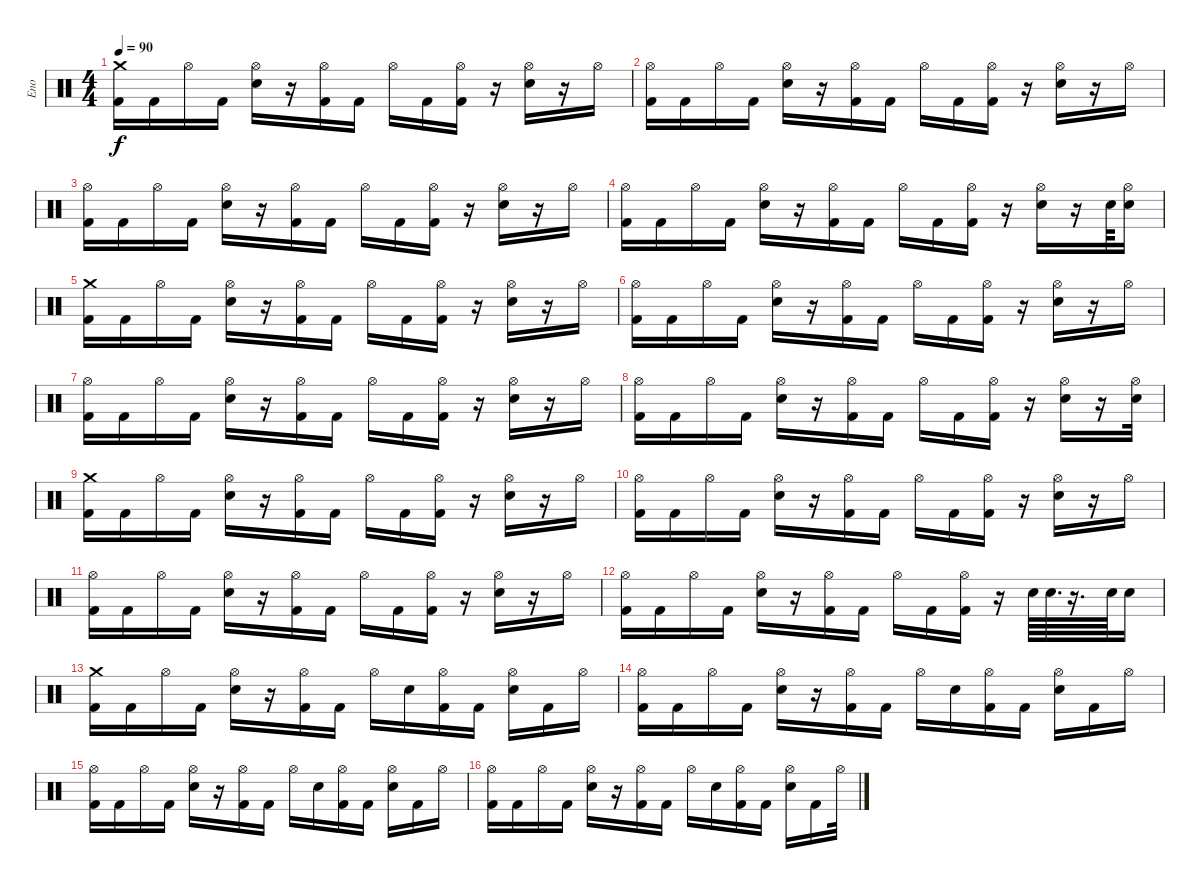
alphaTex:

\track ("Eno" "Eno") {instrument percussion}
\staff {score}
\articulation defaults
\ts (4 4)
\tempo 90
\clef neutral
\ks c
("Crash medium (hit)" "Kick (hit) 2").16{dy f} "Kick (hit) 2".16 "Hi-Hat (open)".16 "Kick (hit) 2".16 ("Hi-Hat (open)" "Snare (hit) 2").16 r.16 ("Hi-Hat (open)" "Kick (hit) 2").16 "Kick (hit) 2".16 "Hi-Hat (open)".16 "Kick (hit) 2".16 ("Hi-Hat (open)" "Kick (hit) 2").16 r.16 ("Hi-Hat (open)" "Snare (hit) 2").16 r.16 "Hi-Hat (open)".16 |
("Hi-Hat (open)" "Kick (hit) 2").16 "Kick (hit) 2".16 "Hi-Hat (open)".16 "Kick (hit) 2".16 ("Hi-Hat (open)" "Snare (hit) 2").16 r.16 ("Hi-Hat (open)" "Kick (hit) 2").16 "Kick (hit) 2".16 "Hi-Hat (open)".16 "Kick (hit) 2".16 ("Hi-Hat (open)" "Kick (hit) 2").16 r.16 ("Hi-Hat (open)" "Snare (hit) 2").16 r.16 "Hi-Hat (open)".16 |
("Hi-Hat (open)" "Kick (hit) 2").16 "Kick (hit) 2".16 "Hi-Hat (open)".16 "Kick (hit) 2".16 ("Hi-Hat (open)" "Snare (hit) 2").16 r.16 ("Hi-Hat (open)" "Kick (hit) 2").16 "Kick (hit) 2".16 "Hi-Hat (open)".16 "Kick (hit) 2".16 ("Hi-Hat (open)" "Kick (hit) 2").16 r.16 ("Hi-Hat (open)" "Snare (hit) 2").16 r.16 "Hi-Hat (open)".16 |
("Hi-Hat (open)" "Kick (hit) 2").16 "Kick (hit) 2".16 "Hi-Hat (open)".16 "Kick (hit) 2".16 ("Hi-Hat (open)" "Snare (hit) 2").16 r.16 ("Hi-Hat (open)" "Kick (hit) 2").16 "Kick (hit) 2".16 "Hi-Hat (open)".16 "Kick (hit) 2".16 ("Hi-Hat (open)" "Kick (hit) 2").16 r.16 ("Hi-Hat (open)" "Snare (hit) 2").16 r.16 "Snare (hit) 2".64 ("Hi-Hat (open)" "Snare (hit) 2").16 |
("Crash medium (hit)" "Kick (hit) 2").16 "Kick (hit) 2".16 "Hi-Hat (open)".16 "Kick (hit) 2".16 ("Hi-Hat (open)" "Snare (hit) 2").16 r.16 ("Hi-Hat (open)" "Kick (hit) 2").16 "Kick (hit) 2".16 "Hi-Hat (open)".16 "Kick (hit) 2".16 ("Hi-Hat (open)" "Kick (hit) 2").16 r.16 ("Hi-Hat (open)" "Snare (hit) 2").16 r.16 "Hi-Hat (open)".16 |
("Hi-Hat (open)" "Kick (hit) 2").16 "Kick (hit) 2".16 "Hi-Hat (open)".16 "Kick (hit) 2".16 ("Hi-Hat (open)" "Snare (hit) 2").16 r.16 ("Hi-Hat (open)" "Kick (hit) 2").16 "Kick (hit) 2".16 "Hi-Hat (open)".16 "Kick (hit) 2".16 ("Hi-Hat (open)" "Kick (hit) 2").16 r.16 ("Hi-Hat (open)" "Snare (hit) 2").16 r.16 "Hi-Hat (open)".16 |
("Hi-Hat (open)" "Kick (hit) 2").16 "Kick (hit) 2".16 "Hi-Hat (open)".16 "Kick (hit) 2".16 ("Hi-Hat (open)" "Snare (hit) 2").16 r.16 ("Hi-Hat (open)" "Kick (hit) 2").16 "Kick (hit) 2".16 "Hi-Hat (open)".16 "Kick (hit) 2".16 ("Hi-Hat (open)" "Kick (hit) 2").16 r.16 ("Hi-Hat (open)" "Snare (hit) 2").16 r.16 "Hi-Hat (open)".16 |
("Hi-Hat (open)" "Kick (hit) 2").16 "Kick (hit) 2".16 "Hi-Hat (open)".16 "Kick (hit) 2".16 ("Hi-Hat (open)" "Snare (hit) 2").16 r.16 ("Hi-Hat (open)" "Kick (hit) 2").16 "Kick (hit) 2".16 "Hi-Hat (open)".16 "Kick (hit) 2".16 ("Hi-Hat (open)" "Kick (hit) 2").16 r.16 ("Hi-Hat (open)" "Snare (hit) 2").16 r.16 ("Hi-Hat (open)" "Snare (hit) 2").32 |
("Crash medium (hit)" "Kick (hit) 2").16 "Kick (hit) 2".16 "Hi-Hat (open)".16 "Kick (hit) 2".16 ("Hi-Hat (open)" "Snare (hit) 2").16 r.16 ("Hi-Hat (open)" "Kick (hit) 2").16 "Kick (hit) 2".16 "Hi-Hat (open)".16 "Kick (hit) 2".16 ("Hi-Hat (open)" "Kick (hit) 2").16 r.16 ("Hi-Hat (open)" "Snare (hit) 2").16 r.16 "Hi-Hat (open)".16 |
("Hi-Hat (open)" "Kick (hit) 2").16 "Kick (hit) 2".16 "Hi-Hat (open)".16 "Kick (hit) 2".16 ("Hi-Hat (open)" "Snare (hit) 2").16 r.16 ("Hi-Hat (open)" "Kick (hit) 2").16 "Kick (hit) 2".16 "Hi-Hat (open)".16 "Kick (hit) 2".16 ("Hi-Hat (open)" "Kick (hit) 2").16 r.16 ("Hi-Hat (open)" "Snare (hit) 2").16 r.16 "Hi-Hat (open)".16 |
("Hi-Hat (open)" "Kick (hit) 2").16 "Kick (hit) 2".16 "Hi-Hat (open)".16 "Kick (hit) 2".16 ("Hi-Hat (open)" "Snare (hit) 2").16 r.16 ("Hi-Hat (open)" "Kick (hit) 2").16 "Kick (hit) 2".16 "Hi-Hat (open)".16 "Kick (hit) 2".16 ("Hi-Hat (open)" "Kick (hit) 2").16 r.16 ("Hi-Hat (open)" "Snare (hit) 2").16 r.16 "Hi-Hat (open)".16 |
("Hi-Hat (open)" "Kick (hit) 2").16 "Kick (hit) 2".16 "Hi-Hat (open)".16 "Kick (hit) 2".16 ("Hi-Hat (open)" "Snare (hit) 2").16 r.16 ("Hi-Hat (open)" "Kick (hit) 2").16 "Kick (hit) 2".16 "Hi-Hat (open)".16 "Kick (hit) 2".16 ("Hi-Hat (open)" "Kick (hit) 2").16 r.16 "Snare (hit) 2".64 "Snare (hit) 2".64{d} r.16{d} "Snare (hit) 2".64 "Snare (hit) 2".16 |
("Crash medium (hit)" "Kick (hit) 2").16 "Kick (hit) 2".16 "Hi-Hat (open)".16 "Kick (hit) 2".16 ("Hi-Hat (open)" "Snare (hit) 2").16 r.16 ("Hi-Hat (open)" "Kick (hit) 2").16 "Kick (hit) 2".16 "Hi-Hat (open)".16 "Snare (hit) 2".16 ("Hi-Hat (open)" "Kick (hit) 2").16 "Kick (hit) 2".16 ("Hi-Hat (open)" "Snare (hit) 2").16 "Kick (hit) 2".16 "Hi-Hat (open)".16 |
("Hi-Hat (open)" "Kick (hit) 2").16 "Kick (hit) 2".16 "Hi-Hat (open)".16 "Kick (hit) 2".16 ("Hi-Hat (open)" "Snare (hit) 2").16 r.16 ("Hi-Hat (open)" "Kick (hit) 2").16 "Kick (hit) 2".16 "Hi-Hat (open)".16 "Snare (hit) 2".16 ("Hi-Hat (open)" "Kick (hit) 2").16 "Kick (hit) 2".16 ("Hi-Hat (open)" "Snare (hit) 2").16 "Kick (hit) 2".16 "Hi-Hat (open)".16 |
("Hi-Hat (open)" "Kick (hit) 2").16 "Kick (hit) 2".16 "Hi-Hat (open)".16 "Kick (hit) 2".16 ("Hi-Hat (open)" "Snare (hit) 2").16 r.16 ("Hi-Hat (open)" "Kick (hit) 2").16 "Kick (hit) 2".16 "Hi-Hat (open)".16 "Snare (hit) 2".16 ("Hi-Hat (open)" "Kick (hit) 2").16 "Kick (hit) 2".16 ("Hi-Hat (open)" "Snare (hit) 2").16 "Kick (hit) 2".16 "Hi-Hat (open)".16 |
("Hi-Hat (open)" "Kick (hit) 2").16 "Kick (hit) 2".16 "Hi-Hat (open)".16 "Kick (hit) 2".16 ("Hi-Hat (open)" "Snare (hit) 2").16 r.16 ("Hi-Hat (open)" "Kick (hit) 2").16 "Kick (hit) 2".16 "Hi-Hat (open)".16 "Snare (hit) 2".16 ("Hi-Hat (open)" "Kick (hit) 2").16 "Kick (hit) 2".16 ("Hi-Hat (open)" "Snare (hit) 2").16 "Kick (hit) 2".16 "Hi-Hat (open)".32
